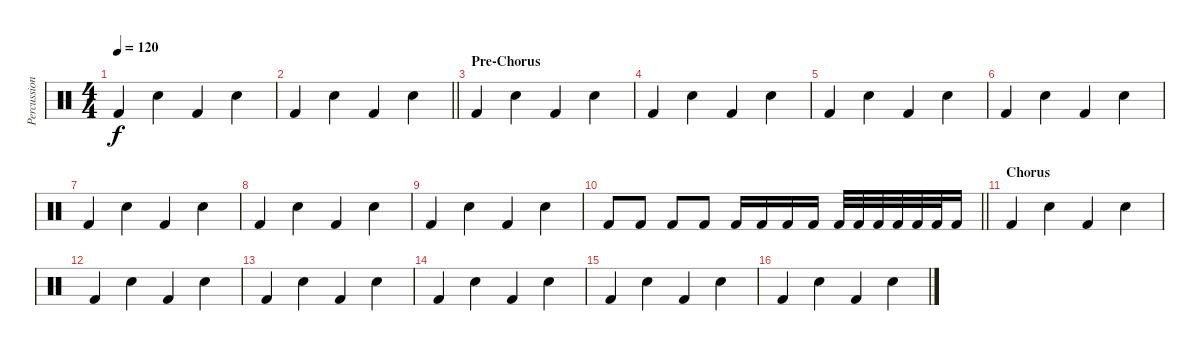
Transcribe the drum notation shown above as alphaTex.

\track ("Percussion" "Percussion") {instrument percussion}
\staff {score}
\articulation defaults
\ts (4 4)
\tempo 120
\clef neutral
\ks c "Kick (hit) 2".4{dy f} "Electric Snare (hit)".4 "Kick (hit) 2".4 "Electric Snare (hit)".4
|
\barLineRight lightlight "Kick (hit) 2".4 "Electric Snare (hit)".4 "Kick (hit) 2".4 "Electric Snare (hit)".4
|
\section ("" "Pre-Chorus")
"Kick (hit) 2".4 "Electric Snare (hit)".4 "Kick (hit) 2".4 "Electric Snare (hit)".4 |
"Kick (hit) 2".4 "Electric Snare (hit)".4 "Kick (hit) 2".4 "Electric Snare (hit)".4 |
"Kick (hit) 2".4 "Electric Snare (hit)".4 "Kick (hit) 2".4 "Electric Snare (hit)".4 |
"Kick (hit) 2".4 "Electric Snare (hit)".4 "Kick (hit) 2".4 "Electric Snare (hit)".4 |
"Kick (hit) 2".4 "Electric Snare (hit)".4 "Kick (hit) 2".4 "Electric Snare (hit)".4 |
"Kick (hit) 2".4 "Electric Snare (hit)".4 "Kick (hit) 2".4 "Electric Snare (hit)".4 |
"Kick (hit) 2".4 "Electric Snare (hit)".4 "Kick (hit) 2".4 "Electric Snare (hit)".4 |
\barLineRight lightlight "Kick (hit) 2".8 "Kick (hit) 2".8 "Kick (hit) 2".8 "Kick (hit) 2".8 "Kick (hit) 2".16 "Kick (hit) 2".16 "Kick (hit) 2".16 "Kick (hit) 2".16 "Kick (hit) 2".32 "Kick (hit) 2".32 "Kick (hit) 2".32 "Kick (hit) 2".32 "Kick (hit) 2".32 "Kick (hit) 2".32 "Kick (hit) 2".16
|
\section ("" "Chorus")
"Kick (hit) 2".4 "Electric Snare (hit)".4 "Kick (hit) 2".4 "Electric Snare (hit)".4 |
"Kick (hit) 2".4 "Electric Snare (hit)".4 "Kick (hit) 2".4 "Electric Snare (hit)".4 |
"Kick (hit) 2".4 "Electric Snare (hit)".4 "Kick (hit) 2".4 "Electric Snare (hit)".4 |
"Kick (hit) 2".4 "Electric Snare (hit)".4 "Kick (hit) 2".4 "Electric Snare (hit)".4 |
"Kick (hit) 2".4 "Electric Snare (hit)".4 "Kick (hit) 2".4 "Electric Snare (hit)".4 |
"Kick (hit) 2".4 "Electric Snare (hit)".4 "Kick (hit) 2".4 "Electric Snare (hit)".4
